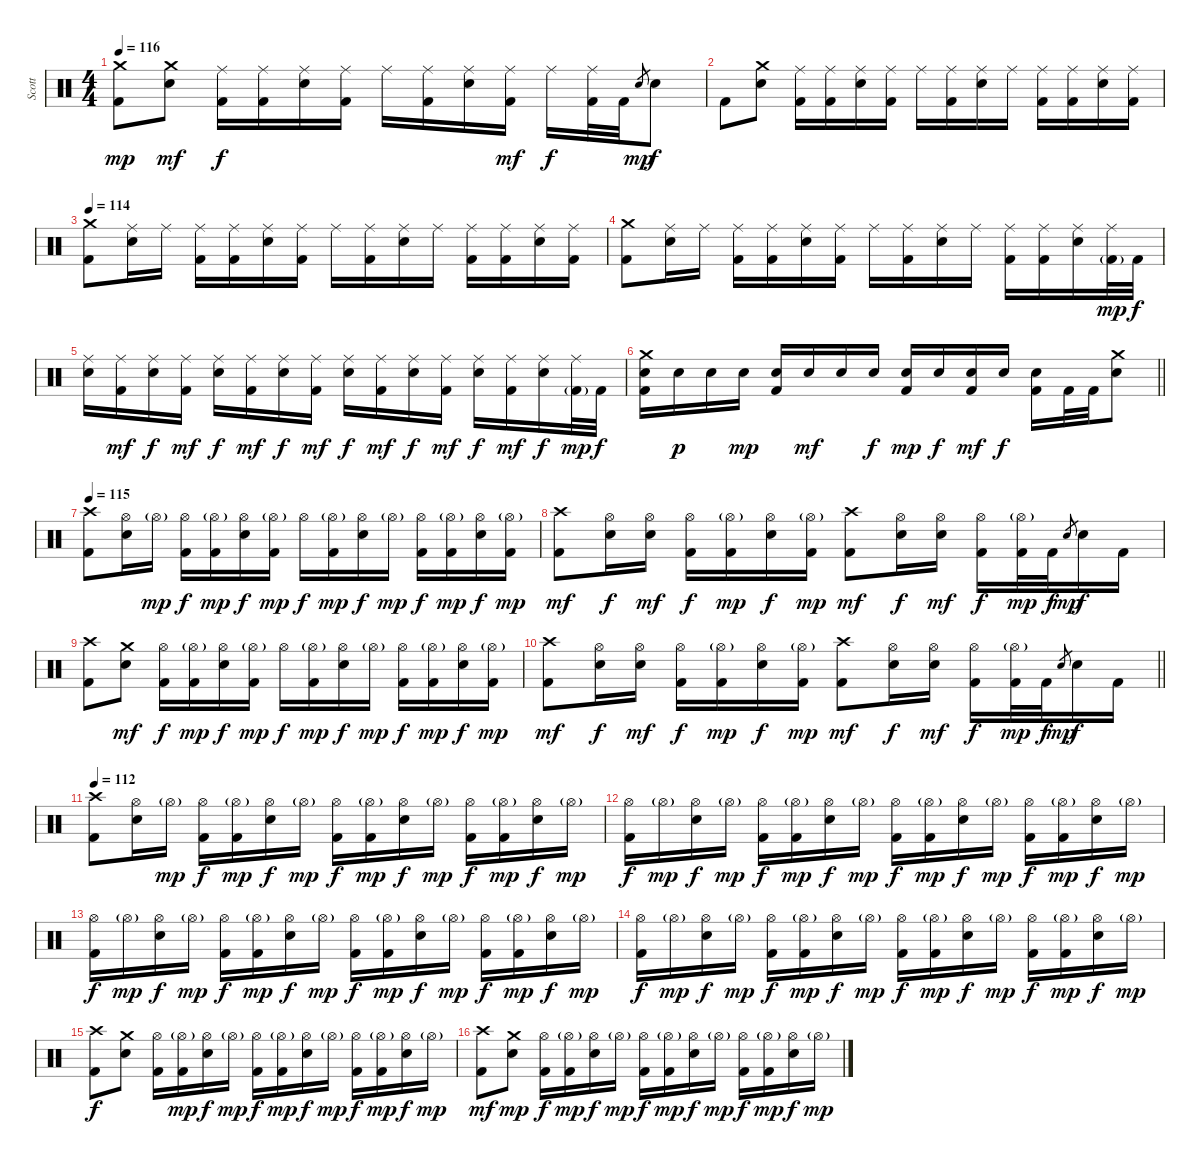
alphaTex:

\track ("Scott" "Scott") {instrument percussion}
\staff {score}
\articulation defaults
\ts (4 4)
\tempo 116
\clef neutral
\ks c
("Crash medium (hit)" "Kick (hit) 2").8{dy mp} ("Crash medium (hit)" "Electric Snare (hit)").8{dy mf} ("Ride (middle)" "Kick (hit) 2").16{dy f} ("Ride (middle)" "Kick (hit) 2").16 ("Ride (middle)" "Electric Snare (hit)").16 ("Ride (middle)" "Kick (hit) 2").16 "Ride (middle)".16 ("Ride (middle)" "Kick (hit) 2").16 ("Ride (middle)" "Electric Snare (hit)").16 ("Ride (middle)" "Kick (hit) 2").16{dy mf} "Ride (middle)".16{dy f} ("Ride (middle)" "Kick (hit) 2").32 "Kick (hit) 2".32 "Electric Snare (hit)".8{gr dy mp} "Electric Snare (hit)".8{dy f} |
"Kick (hit) 2".8 ("Crash medium (hit)" "Electric Snare (hit)").8 ("Ride (middle)" "Kick (hit) 2").16 ("Ride (middle)" "Kick (hit) 2").16 ("Ride (middle)" "Electric Snare (hit)").16 ("Ride (middle)" "Kick (hit) 2").16 "Ride (middle)".16 ("Ride (middle)" "Kick (hit) 2").16 ("Ride (middle)" "Electric Snare (hit)").16 "Ride (middle)".16 ("Ride (middle)" "Kick (hit) 2").16 ("Ride (middle)" "Kick (hit) 2").16 ("Ride (middle)" "Electric Snare (hit)").16 ("Ride (middle)" "Kick (hit) 2").16 |
\tempo 114
("Crash medium (hit)" "Kick (hit) 2").8 ("Ride (middle)" "Electric Snare (hit)").16 "Ride (middle)".16 ("Ride (middle)" "Kick (hit) 2").16 ("Ride (middle)" "Kick (hit) 2").16 ("Ride (middle)" "Electric Snare (hit)").16 ("Ride (middle)" "Kick (hit) 2").16 "Ride (middle)".16 ("Ride (middle)" "Kick (hit) 2").16 ("Ride (middle)" "Electric Snare (hit)").16 "Ride (middle)".16 ("Ride (middle)" "Kick (hit) 2").16 ("Ride (middle)" "Kick (hit) 2").16 ("Ride (middle)" "Electric Snare (hit)").16 ("Ride (middle)" "Kick (hit) 2").16 |
("Crash medium (hit)" "Kick (hit) 2").8 ("Ride (middle)" "Electric Snare (hit)").16 "Ride (middle)".16 ("Ride (middle)" "Kick (hit) 2").16 ("Ride (middle)" "Kick (hit) 2").16 ("Ride (middle)" "Electric Snare (hit)").16 ("Ride (middle)" "Kick (hit) 2").16 "Ride (middle)".16 ("Ride (middle)" "Kick (hit) 2").16 ("Ride (middle)" "Electric Snare (hit)").16 "Ride (middle)".16 ("Ride (middle)" "Kick (hit) 2").16 ("Ride (middle)" "Kick (hit) 2").16 ("Ride (middle)" "Electric Snare (hit)").16 ("Ride (middle)" "Kick (hit) 2"{g}).32{dy mp} "Kick (hit) 2".32{dy f} |
("Ride (middle)" "Electric Snare (hit)").16 ("Ride (middle)" "Kick (hit) 2").16{dy mf} ("Ride (middle)" "Electric Snare (hit)").16{dy f} ("Ride (middle)" "Kick (hit) 2").16{dy mf} ("Ride (middle)" "Electric Snare (hit)").16{dy f} ("Ride (middle)" "Kick (hit) 2").16{dy mf} ("Ride (middle)" "Electric Snare (hit)").16{dy f} ("Ride (middle)" "Kick (hit) 2").16{dy mf} ("Ride (middle)" "Electric Snare (hit)").16{dy f} ("Ride (middle)" "Kick (hit) 2").16{dy mf} ("Ride (middle)" "Electric Snare (hit)").16{dy f} ("Ride (middle)" "Kick (hit) 2").16{dy mf} ("Ride (middle)" "Electric Snare (hit)").16{dy f} ("Ride (middle)" "Kick (hit) 2").16{dy mf} ("Ride (middle)" "Electric Snare (hit)").16{dy f} ("Ride (middle)" "Kick (hit) 2"{g}).32{dy mp} "Kick (hit) 2".32{dy f} |
\barLineRight lightlight
("Crash medium (hit)" "Electric Snare (hit)" "Kick (hit) 2").16 "Electric Snare (hit)".16{dy p} "Electric Snare (hit)".16 "Electric Snare (hit)".16{dy mp} ("Electric Snare (hit)" "Kick (hit) 2").16 "Electric Snare (hit)".16{dy mf} "Electric Snare (hit)".16 "Electric Snare (hit)".16{dy f} ("Electric Snare (hit)" "Kick (hit) 2").16{dy mp} "Electric Snare (hit)".16{dy f} ("Electric Snare (hit)" "Kick (hit) 2").16{dy mf} "Electric Snare (hit)".16{dy f} ("Electric Snare (hit)" "Kick (hit) 2").16 "Kick (hit) 2".32 "Kick (hit) 2".32 ("Crash medium (hit)" "Electric Snare (hit)").8 |
\section ("" "")
\tempo 115
("Crash high (hit)" "Kick (hit) 2").8 ("Hi-Hat (open)" "Electric Snare (hit)").16 "Hi-Hat (open)"{g}.16{dy mp} ("Hi-Hat (open)" "Kick (hit) 2").16{dy f} ("Hi-Hat (open)"{g} "Kick (hit) 2").16{dy mp} ("Hi-Hat (open)" "Electric Snare (hit)").16{dy f} ("Hi-Hat (open)"{g} "Kick (hit) 2").16{dy mp} "Hi-Hat (open)".16{dy f} ("Hi-Hat (open)"{g} "Kick (hit) 2").16{dy mp} ("Hi-Hat (open)" "Electric Snare (hit)").16{dy f} "Hi-Hat (open)"{g}.16{dy mp} ("Hi-Hat (open)" "Kick (hit) 2").16{dy f} ("Hi-Hat (open)"{g} "Kick (hit) 2").16{dy mp} ("Hi-Hat (open)" "Electric Snare (hit)").16{dy f} ("Hi-Hat (open)"{g} "Kick (hit) 2").16{dy mp} |
("Crash high (hit)" "Kick (hit) 2").8{dy mf} ("Hi-Hat (open)" "Electric Snare (hit)").16{dy f} ("Hi-Hat (open)" "Electric Snare (hit)").16{dy mf} ("Hi-Hat (open)" "Kick (hit) 2").16{dy f} ("Hi-Hat (open)"{g} "Kick (hit) 2").16{dy mp} ("Hi-Hat (open)" "Electric Snare (hit)").16{dy f} ("Hi-Hat (open)"{g} "Kick (hit) 2").16{dy mp} ("Crash high (hit)" "Kick (hit) 2").8{dy mf} ("Hi-Hat (open)" "Electric Snare (hit)").16{dy f} ("Hi-Hat (open)" "Electric Snare (hit)").16{dy mf} ("Hi-Hat (open)" "Kick (hit) 2").16{dy f} ("Hi-Hat (open)"{g} "Kick (hit) 2").32{dy mp} "Kick (hit) 2".32{dy f} "Electric Snare (hit)".8{gr dy mp} "Electric Snare (hit)".16{dy f} "Kick (hit) 2".16 |
("Crash high (hit)" "Kick (hit) 2").8 ("Crash medium (hit)" "Electric Snare (hit)").8{dy mf} ("Hi-Hat (open)" "Kick (hit) 2").16{dy f} ("Hi-Hat (open)"{g} "Kick (hit) 2").16{dy mp} ("Hi-Hat (open)" "Electric Snare (hit)").16{dy f} ("Hi-Hat (open)"{g} "Kick (hit) 2").16{dy mp} "Hi-Hat (open)".16{dy f} ("Hi-Hat (open)"{g} "Kick (hit) 2").16{dy mp} ("Hi-Hat (open)" "Electric Snare (hit)").16{dy f} "Hi-Hat (open)"{g}.16{dy mp} ("Hi-Hat (open)" "Kick (hit) 2").16{dy f} ("Hi-Hat (open)"{g} "Kick (hit) 2").16{dy mp} ("Hi-Hat (open)" "Electric Snare (hit)").16{dy f} ("Hi-Hat (open)"{g} "Kick (hit) 2").16{dy mp} |
\barLineRight lightlight
("Crash high (hit)" "Kick (hit) 2").8{dy mf} ("Hi-Hat (open)" "Electric Snare (hit)").16{dy f} ("Hi-Hat (open)" "Electric Snare (hit)").16{dy mf} ("Hi-Hat (open)" "Kick (hit) 2").16{dy f} ("Hi-Hat (open)"{g} "Kick (hit) 2").16{dy mp} ("Hi-Hat (open)" "Electric Snare (hit)").16{dy f} ("Hi-Hat (open)"{g} "Kick (hit) 2").16{dy mp} ("Crash high (hit)" "Kick (hit) 2").8{dy mf} ("Hi-Hat (open)" "Electric Snare (hit)").16{dy f} ("Hi-Hat (open)" "Electric Snare (hit)").16{dy mf} ("Hi-Hat (open)" "Kick (hit) 2").16{dy f} ("Hi-Hat (open)"{g} "Kick (hit) 2").32{dy mp} "Kick (hit) 2".32{dy f} "Electric Snare (hit)".8{gr dy mp} "Electric Snare (hit)".16{dy f} "Kick (hit) 2".16 |
\section ("" "")
\tempo 112
("Crash high (hit)" "Kick (hit) 2").8 ("Hi-Hat (open)" "Electric Snare (hit)").16 "Hi-Hat (open)"{g}.16{dy mp} ("Hi-Hat (open)" "Kick (hit) 2").16{dy f} ("Hi-Hat (open)"{g} "Kick (hit) 2").16{dy mp} ("Hi-Hat (open)" "Electric Snare (hit)").16{dy f} "Hi-Hat (open)"{g}.16{dy mp} ("Hi-Hat (open)" "Kick (hit) 2").16{dy f} ("Hi-Hat (open)"{g} "Kick (hit) 2").16{dy mp} ("Hi-Hat (open)" "Electric Snare (hit)").16{dy f} "Hi-Hat (open)"{g}.16{dy mp} ("Hi-Hat (open)" "Kick (hit) 2").16{dy f} ("Hi-Hat (open)"{g} "Kick (hit) 2").16{dy mp} ("Hi-Hat (open)" "Electric Snare (hit)").16{dy f} "Hi-Hat (open)"{g}.16{dy mp} |
("Hi-Hat (open)" "Kick (hit) 2").16{dy f} "Hi-Hat (open)"{g}.16{dy mp} ("Hi-Hat (open)" "Electric Snare (hit)").16{dy f} "Hi-Hat (open)"{g}.16{dy mp} ("Hi-Hat (open)" "Kick (hit) 2").16{dy f} ("Hi-Hat (open)"{g} "Kick (hit) 2").16{dy mp} ("Hi-Hat (open)" "Electric Snare (hit)").16{dy f} "Hi-Hat (open)"{g}.16{dy mp} ("Hi-Hat (open)" "Kick (hit) 2").16{dy f} ("Hi-Hat (open)"{g} "Kick (hit) 2").16{dy mp} ("Hi-Hat (open)" "Electric Snare (hit)").16{dy f} "Hi-Hat (open)"{g}.16{dy mp} ("Hi-Hat (open)" "Kick (hit) 2").16{dy f} ("Hi-Hat (open)"{g} "Kick (hit) 2").16{dy mp} ("Hi-Hat (open)" "Electric Snare (hit)").16{dy f} "Hi-Hat (open)"{g}.16{dy mp} |
("Hi-Hat (open)" "Kick (hit) 2").16{dy f} "Hi-Hat (open)"{g}.16{dy mp} ("Hi-Hat (open)" "Electric Snare (hit)").16{dy f} "Hi-Hat (open)"{g}.16{dy mp} ("Hi-Hat (open)" "Kick (hit) 2").16{dy f} ("Hi-Hat (open)"{g} "Kick (hit) 2").16{dy mp} ("Hi-Hat (open)" "Electric Snare (hit)").16{dy f} "Hi-Hat (open)"{g}.16{dy mp} ("Hi-Hat (open)" "Kick (hit) 2").16{dy f} ("Hi-Hat (open)"{g} "Kick (hit) 2").16{dy mp} ("Hi-Hat (open)" "Electric Snare (hit)").16{dy f} "Hi-Hat (open)"{g}.16{dy mp} ("Hi-Hat (open)" "Kick (hit) 2").16{dy f} ("Hi-Hat (open)"{g} "Kick (hit) 2").16{dy mp} ("Hi-Hat (open)" "Electric Snare (hit)").16{dy f} "Hi-Hat (open)"{g}.16{dy mp} |
("Hi-Hat (open)" "Kick (hit) 2").16{dy f} "Hi-Hat (open)"{g}.16{dy mp} ("Hi-Hat (open)" "Electric Snare (hit)").16{dy f} "Hi-Hat (open)"{g}.16{dy mp} ("Hi-Hat (open)" "Kick (hit) 2").16{dy f} ("Hi-Hat (open)"{g} "Kick (hit) 2").16{dy mp} ("Hi-Hat (open)" "Electric Snare (hit)").16{dy f} "Hi-Hat (open)"{g}.16{dy mp} ("Hi-Hat (open)" "Kick (hit) 2").16{dy f} ("Hi-Hat (open)"{g} "Kick (hit) 2").16{dy mp} ("Hi-Hat (open)" "Electric Snare (hit)").16{dy f} "Hi-Hat (open)"{g}.16{dy mp} ("Hi-Hat (open)" "Kick (hit) 2").16{dy f} ("Hi-Hat (open)"{g} "Kick (hit) 2").16{dy mp} ("Hi-Hat (open)" "Electric Snare (hit)").16{dy f} "Hi-Hat (open)"{g}.16{dy mp} |
("Crash high (hit)" "Kick (hit) 2").8{dy f} ("Crash medium (hit)" "Electric Snare (hit)").8 ("Hi-Hat (open)" "Kick (hit) 2").16 ("Hi-Hat (open)"{g} "Kick (hit) 2").16{dy mp} ("Hi-Hat (open)" "Electric Snare (hit)").16{dy f} "Hi-Hat (open)"{g}.16{dy mp} ("Hi-Hat (open)" "Kick (hit) 2").16{dy f} ("Hi-Hat (open)"{g} "Kick (hit) 2").16{dy mp} ("Hi-Hat (open)" "Electric Snare (hit)").16{dy f} "Hi-Hat (open)"{g}.16{dy mp} ("Hi-Hat (open)" "Kick (hit) 2").16{dy f} ("Hi-Hat (open)"{g} "Kick (hit) 2").16{dy mp} ("Hi-Hat (open)" "Electric Snare (hit)").16{dy f} "Hi-Hat (open)"{g}.16{dy mp} |
("Crash high (hit)" "Kick (hit) 2").8{dy mf} ("Crash medium (hit)" "Electric Snare (hit)").8{dy mp} ("Hi-Hat (open)" "Kick (hit) 2").16{dy f} ("Hi-Hat (open)"{g} "Kick (hit) 2").16{dy mp} ("Hi-Hat (open)" "Electric Snare (hit)").16{dy f} "Hi-Hat (open)"{g}.16{dy mp} ("Hi-Hat (open)" "Kick (hit) 2").16{dy f} ("Hi-Hat (open)"{g} "Kick (hit) 2").16{dy mp} ("Hi-Hat (open)" "Electric Snare (hit)").16{dy f} "Hi-Hat (open)"{g}.16{dy mp} ("Hi-Hat (open)" "Kick (hit) 2").16{dy f} ("Hi-Hat (open)"{g} "Kick (hit) 2").16{dy mp} ("Hi-Hat (open)" "Electric Snare (hit)").16{dy f} "Hi-Hat (open)"{g}.16{dy mp}
